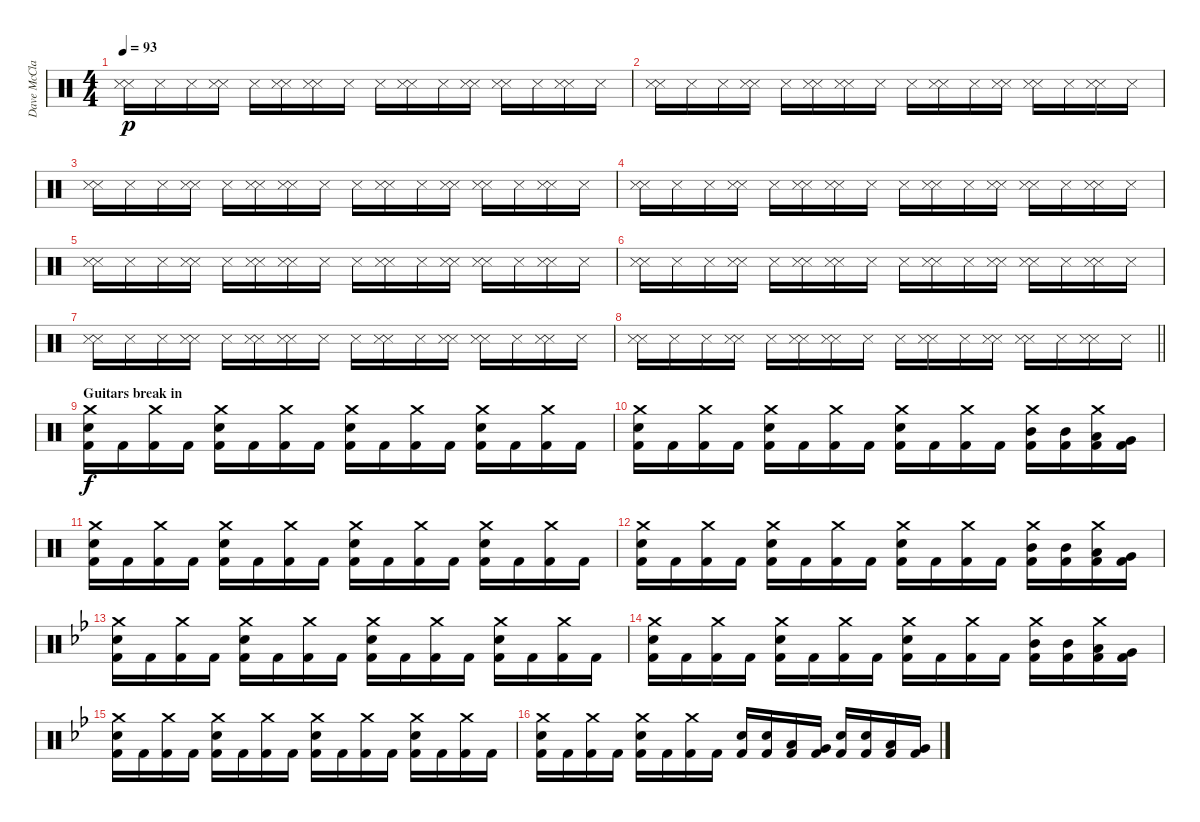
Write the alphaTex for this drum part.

\track ("Dave McClain" "Dave McCla") {instrument percussion}
\staff {score}
\articulation defaults
\ts (4 4)
\tempo 93
\clef neutral
\ks c
("Snare (side stick) 3" "Snare (side stick) 3").16{dy p} "Snare (side stick) 3".16 "Snare (side stick) 3".16 ("Snare (side stick) 3" "Snare (side stick) 3").16 "Snare (side stick) 3".16 ("Snare (side stick) 3" "Snare (side stick) 3").16 ("Snare (side stick) 3" "Snare (side stick) 3").16 "Snare (side stick) 3".16 "Snare (side stick) 3".16 ("Snare (side stick) 3" "Snare (side stick) 3").16 "Snare (side stick) 3".16 ("Snare (side stick) 3" "Snare (side stick) 3").16 ("Snare (side stick) 3" "Snare (side stick) 3").16 "Snare (side stick) 3".16 ("Snare (side stick) 3" "Snare (side stick) 3").16 "Snare (side stick) 3".16 |
("Snare (side stick) 3" "Snare (side stick) 3").16 "Snare (side stick) 3".16 "Snare (side stick) 3".16 ("Snare (side stick) 3" "Snare (side stick) 3").16 "Snare (side stick) 3".16 ("Snare (side stick) 3" "Snare (side stick) 3").16 ("Snare (side stick) 3" "Snare (side stick) 3").16 "Snare (side stick) 3".16 "Snare (side stick) 3".16 ("Snare (side stick) 3" "Snare (side stick) 3").16 "Snare (side stick) 3".16 ("Snare (side stick) 3" "Snare (side stick) 3").16 ("Snare (side stick) 3" "Snare (side stick) 3").16 "Snare (side stick) 3".16 ("Snare (side stick) 3" "Snare (side stick) 3").16 "Snare (side stick) 3".16 |
("Snare (side stick) 3" "Snare (side stick) 3").16 "Snare (side stick) 3".16 "Snare (side stick) 3".16 ("Snare (side stick) 3" "Snare (side stick) 3").16 "Snare (side stick) 3".16 ("Snare (side stick) 3" "Snare (side stick) 3").16 ("Snare (side stick) 3" "Snare (side stick) 3").16 "Snare (side stick) 3".16 "Snare (side stick) 3".16 ("Snare (side stick) 3" "Snare (side stick) 3").16 "Snare (side stick) 3".16 ("Snare (side stick) 3" "Snare (side stick) 3").16 ("Snare (side stick) 3" "Snare (side stick) 3").16 "Snare (side stick) 3".16 ("Snare (side stick) 3" "Snare (side stick) 3").16 "Snare (side stick) 3".16 |
("Snare (side stick) 3" "Snare (side stick) 3").16 "Snare (side stick) 3".16 "Snare (side stick) 3".16 ("Snare (side stick) 3" "Snare (side stick) 3").16 "Snare (side stick) 3".16 ("Snare (side stick) 3" "Snare (side stick) 3").16 ("Snare (side stick) 3" "Snare (side stick) 3").16 "Snare (side stick) 3".16 "Snare (side stick) 3".16 ("Snare (side stick) 3" "Snare (side stick) 3").16 "Snare (side stick) 3".16 ("Snare (side stick) 3" "Snare (side stick) 3").16 ("Snare (side stick) 3" "Snare (side stick) 3").16 "Snare (side stick) 3".16 ("Snare (side stick) 3" "Snare (side stick) 3").16 "Snare (side stick) 3".16 |
("Snare (side stick) 3" "Snare (side stick) 3").16 "Snare (side stick) 3".16 "Snare (side stick) 3".16 ("Snare (side stick) 3" "Snare (side stick) 3").16 "Snare (side stick) 3".16 ("Snare (side stick) 3" "Snare (side stick) 3").16 ("Snare (side stick) 3" "Snare (side stick) 3").16 "Snare (side stick) 3".16 "Snare (side stick) 3".16 ("Snare (side stick) 3" "Snare (side stick) 3").16 "Snare (side stick) 3".16 ("Snare (side stick) 3" "Snare (side stick) 3").16 ("Snare (side stick) 3" "Snare (side stick) 3").16 "Snare (side stick) 3".16 ("Snare (side stick) 3" "Snare (side stick) 3").16 "Snare (side stick) 3".16 |
("Snare (side stick) 3" "Snare (side stick) 3").16 "Snare (side stick) 3".16 "Snare (side stick) 3".16 ("Snare (side stick) 3" "Snare (side stick) 3").16 "Snare (side stick) 3".16 ("Snare (side stick) 3" "Snare (side stick) 3").16 ("Snare (side stick) 3" "Snare (side stick) 3").16 "Snare (side stick) 3".16 "Snare (side stick) 3".16 ("Snare (side stick) 3" "Snare (side stick) 3").16 "Snare (side stick) 3".16 ("Snare (side stick) 3" "Snare (side stick) 3").16 ("Snare (side stick) 3" "Snare (side stick) 3").16 "Snare (side stick) 3".16 ("Snare (side stick) 3" "Snare (side stick) 3").16 "Snare (side stick) 3".16 |
("Snare (side stick) 3" "Snare (side stick) 3").16 "Snare (side stick) 3".16 "Snare (side stick) 3".16 ("Snare (side stick) 3" "Snare (side stick) 3").16 "Snare (side stick) 3".16 ("Snare (side stick) 3" "Snare (side stick) 3").16 ("Snare (side stick) 3" "Snare (side stick) 3").16 "Snare (side stick) 3".16 "Snare (side stick) 3".16 ("Snare (side stick) 3" "Snare (side stick) 3").16 "Snare (side stick) 3".16 ("Snare (side stick) 3" "Snare (side stick) 3").16 ("Snare (side stick) 3" "Snare (side stick) 3").16 "Snare (side stick) 3".16 ("Snare (side stick) 3" "Snare (side stick) 3").16 "Snare (side stick) 3".16 |
\barLineRight lightlight
("Snare (side stick) 3" "Snare (side stick) 3").16 "Snare (side stick) 3".16 "Snare (side stick) 3".16 ("Snare (side stick) 3" "Snare (side stick) 3").16 "Snare (side stick) 3".16 ("Snare (side stick) 3" "Snare (side stick) 3").16 ("Snare (side stick) 3" "Snare (side stick) 3").16 "Snare (side stick) 3".16 "Snare (side stick) 3".16 ("Snare (side stick) 3" "Snare (side stick) 3").16 "Snare (side stick) 3".16 ("Snare (side stick) 3" "Snare (side stick) 3").16 ("Snare (side stick) 3" "Snare (side stick) 3").16 "Snare (side stick) 3".16 ("Snare (side stick) 3" "Snare (side stick) 3").16 "Snare (side stick) 3".16 |
\section ("" "Guitars break in")
("Crash medium (hit)" "Snare (hit) 2" "Kick (hit) 2").16{dy f} "Kick (hit) 2".16 ("Crash medium (hit)" "Kick (hit) 2").16 "Kick (hit) 2".16 ("Crash medium (hit)" "Snare (hit) 2" "Kick (hit) 2").16 "Kick (hit) 2".16 ("Crash medium (hit)" "Kick (hit) 2").16 "Kick (hit) 2".16 ("Crash medium (hit)" "Snare (hit) 2" "Kick (hit) 2").16 "Kick (hit) 2".16 ("Crash medium (hit)" "Kick (hit) 2").16 "Kick (hit) 2".16 ("Crash medium (hit)" "Snare (hit) 2" "Kick (hit) 2").16 "Kick (hit) 2".16 ("Crash medium (hit)" "Kick (hit) 2").16 "Kick (hit) 2".16 |
("Crash medium (hit)" "Snare (hit) 2" "Kick (hit) 2").16 "Kick (hit) 2".16 ("Crash medium (hit)" "Kick (hit) 2").16 "Kick (hit) 2".16 ("Crash medium (hit)" "Snare (hit) 2" "Kick (hit) 2").16 "Kick (hit) 2".16 ("Crash medium (hit)" "Kick (hit) 2").16 "Kick (hit) 2".16 ("Crash medium (hit)" "Snare (hit) 2" "Kick (hit) 2").16 "Kick (hit) 2".16 ("Crash medium (hit)" "Kick (hit) 2").16 "Kick (hit) 2".16 ("Crash medium (hit)" "Mid Tom (hit)" "Kick (hit) 2").16 ("Mid Tom (hit)" "Kick (hit) 2").16 ("Crash medium (hit)" "Low Tom (hit)" "Kick (hit) 2").16 ("Very Low Tom (hit)" "Kick (hit) 2").16 |
("Crash medium (hit)" "Snare (hit) 2" "Kick (hit) 2").16 "Kick (hit) 2".16 ("Crash medium (hit)" "Kick (hit) 2").16 "Kick (hit) 2".16 ("Crash medium (hit)" "Snare (hit) 2" "Kick (hit) 2").16 "Kick (hit) 2".16 ("Crash medium (hit)" "Kick (hit) 2").16 "Kick (hit) 2".16 ("Crash medium (hit)" "Snare (hit) 2" "Kick (hit) 2").16 "Kick (hit) 2".16 ("Crash medium (hit)" "Kick (hit) 2").16 "Kick (hit) 2".16 ("Crash medium (hit)" "Snare (hit) 2" "Kick (hit) 2").16 "Kick (hit) 2".16 ("Crash medium (hit)" "Kick (hit) 2").16 "Kick (hit) 2".16 |
("Crash medium (hit)" "Snare (hit) 2" "Kick (hit) 2").16 "Kick (hit) 2".16 ("Crash medium (hit)" "Kick (hit) 2").16 "Kick (hit) 2".16 ("Crash medium (hit)" "Snare (hit) 2" "Kick (hit) 2").16 "Kick (hit) 2".16 ("Crash medium (hit)" "Kick (hit) 2").16 "Kick (hit) 2".16 ("Crash medium (hit)" "Snare (hit) 2" "Kick (hit) 2").16 "Kick (hit) 2".16 ("Crash medium (hit)" "Kick (hit) 2").16 "Kick (hit) 2".16 ("Crash medium (hit)" "Mid Tom (hit)" "Kick (hit) 2").16 ("Mid Tom (hit)" "Kick (hit) 2").16 ("Crash medium (hit)" "Low Tom (hit)" "Kick (hit) 2").16 ("Very Low Tom (hit)" "Kick (hit) 2").16 |
\ks bb
("Crash medium (hit)" "Snare (hit) 2" "Kick (hit) 2").16 "Kick (hit) 2".16 ("Crash medium (hit)" "Kick (hit) 2").16 "Kick (hit) 2".16 ("Crash medium (hit)" "Snare (hit) 2" "Kick (hit) 2").16 "Kick (hit) 2".16 ("Crash medium (hit)" "Kick (hit) 2").16 "Kick (hit) 2".16 ("Crash medium (hit)" "Snare (hit) 2" "Kick (hit) 2").16 "Kick (hit) 2".16 ("Crash medium (hit)" "Kick (hit) 2").16 "Kick (hit) 2".16 ("Crash medium (hit)" "Snare (hit) 2" "Kick (hit) 2").16 "Kick (hit) 2".16 ("Crash medium (hit)" "Kick (hit) 2").16 "Kick (hit) 2".16 |
("Crash medium (hit)" "Snare (hit) 2" "Kick (hit) 2").16 "Kick (hit) 2".16 ("Crash medium (hit)" "Kick (hit) 2").16 "Kick (hit) 2".16 ("Crash medium (hit)" "Snare (hit) 2" "Kick (hit) 2").16 "Kick (hit) 2".16 ("Crash medium (hit)" "Kick (hit) 2").16 "Kick (hit) 2".16 ("Crash medium (hit)" "Snare (hit) 2" "Kick (hit) 2").16 "Kick (hit) 2".16 ("Crash medium (hit)" "Kick (hit) 2").16 "Kick (hit) 2".16 ("Crash medium (hit)" "Mid Tom (hit)" "Kick (hit) 2").16 ("Mid Tom (hit)" "Kick (hit) 2").16 ("Crash medium (hit)" "Low Tom (hit)" "Kick (hit) 2").16 ("Very Low Tom (hit)" "Kick (hit) 2").16 |
("Crash medium (hit)" "Snare (hit) 2" "Kick (hit) 2").16 "Kick (hit) 2".16 ("Crash medium (hit)" "Kick (hit) 2").16 "Kick (hit) 2".16 ("Crash medium (hit)" "Snare (hit) 2" "Kick (hit) 2").16 "Kick (hit) 2".16 ("Crash medium (hit)" "Kick (hit) 2").16 "Kick (hit) 2".16 ("Crash medium (hit)" "Snare (hit) 2" "Kick (hit) 2").16 "Kick (hit) 2".16 ("Crash medium (hit)" "Kick (hit) 2").16 "Kick (hit) 2".16 ("Crash medium (hit)" "Snare (hit) 2" "Kick (hit) 2").16 "Kick (hit) 2".16 ("Crash medium (hit)" "Kick (hit) 2").16 "Kick (hit) 2".16 |
("Crash medium (hit)" "Snare (hit) 2" "Kick (hit) 2").16 "Kick (hit) 2".16 ("Crash medium (hit)" "Kick (hit) 2").16 "Kick (hit) 2".16 ("Crash medium (hit)" "Snare (hit) 2" "Kick (hit) 2").16 "Kick (hit) 2".16 ("Crash medium (hit)" "Kick (hit) 2").16 "Kick (hit) 2".16 ("Snare (hit) 2" "Kick (hit) 2").16 ("Snare (hit) 2" "Kick (hit) 2").16 ("Low Tom (hit)" "Kick (hit) 2").16 ("Very Low Tom (hit)" "Kick (hit) 2").16 ("Snare (hit) 2" "Kick (hit) 2").16 ("Snare (hit) 2" "Kick (hit) 2").16 ("Low Tom (hit)" "Kick (hit) 2").16 ("Very Low Tom (hit)" "Kick (hit) 2").16
